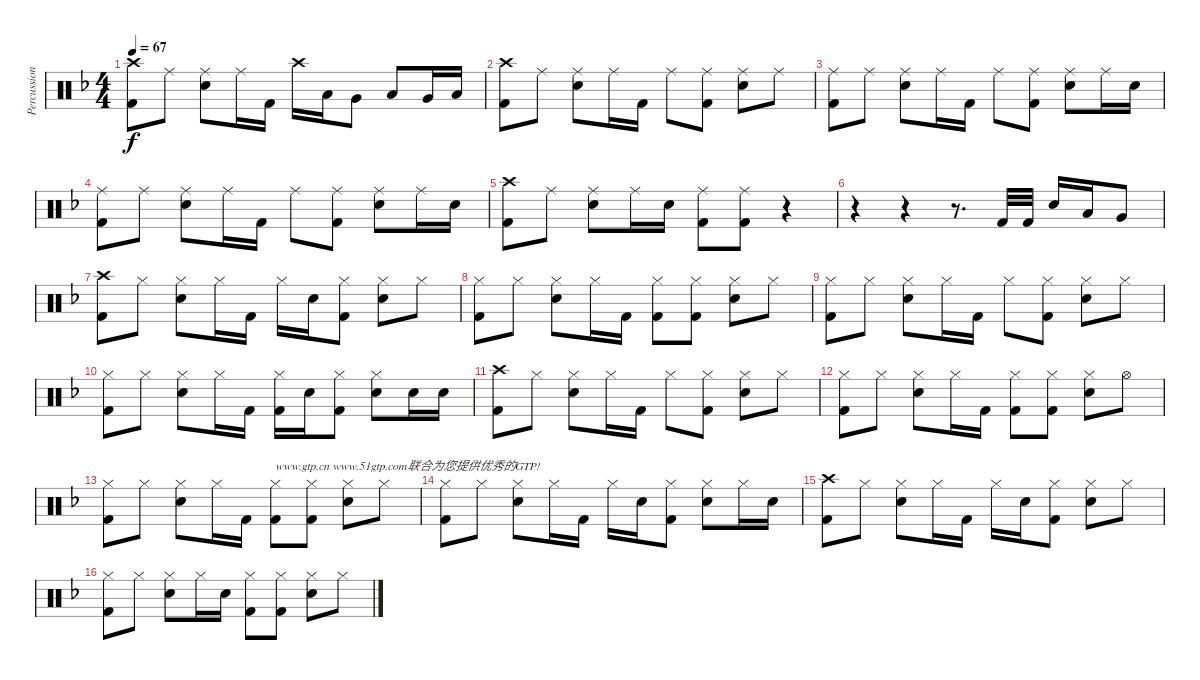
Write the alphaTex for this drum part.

\track ("Percussion" "Percussion") {instrument percussion}
\staff {score}
\articulation defaults
\ts (4 4)
\tempo 67
\clef neutral
\ks f
("Crash high (hit)" "Kick (hit) 2").8{dy f} "Ride (middle)".8 ("Ride (middle)" "Electric Snare (hit)").8 "Ride (middle)".16 "Kick (hit) 2".16 "Crash high (hit)".16 "Low Tom (hit)".16 "Very Low Tom (hit)".8 "Low Tom (hit)".8 "Very Low Tom (hit)".16 "Low Floor Tom (hit)".16 |
("Crash high (hit)" "Kick (hit) 2").8 "Ride (middle)".8 ("Ride (middle)" "Snare (hit) 2").8 "Ride (middle)".16 "Kick (hit) 2".16 "Ride (middle)".8 ("Ride (middle)" "Kick (hit) 2").8 ("Ride (middle)" "Electric Snare (hit)").8 "Ride (middle)".8 |
("Ride (middle)" "Kick (hit) 2").8 "Ride (middle)".8 ("Ride (middle)" "Snare (hit) 2").8 "Ride (middle)".16 "Kick (hit) 2".16 "Ride (middle)".8 ("Ride (middle)" "Kick (hit) 2").8 ("Ride (middle)" "Electric Snare (hit)").8 "Ride (middle)".16 "Electric Snare (hit)".16 |
("Ride (middle)" "Kick (hit) 2").8 "Ride (middle)".8 ("Ride (middle)" "Snare (hit) 2").8 "Ride (middle)".16 "Kick (hit) 2".16 "Ride (middle)".8 ("Ride (middle)" "Kick (hit) 2").8 ("Ride (middle)" "Electric Snare (hit)").8 "Ride (middle)".16 "Electric Snare (hit)".16 |
("Crash high (hit)" "Kick (hit) 2").8 "Ride (middle)".8 ("Ride (middle)" "Electric Snare (hit)").8 "Ride (middle)".16 "Electric Snare (hit)".16 ("Ride (middle)" "Kick (hit) 2").8 ("Ride (middle)" "Kick (hit) 2").8 r.4 |
r.4 r.4 r.8{d} "Kick (hit) 2".32 "Kick (hit) 2".32 "Electric Snare (hit)".16 "Low Tom (hit)".16 "Very Low Tom (hit)".8 |
("Crash high (hit)" "Kick (hit) 2").8 "Hi-Hat (closed)".8 ("Hi-Hat (closed)" "Electric Snare (hit)").8 "Hi-Hat (closed)".16 "Kick (hit) 2".16 "Hi-Hat (closed)".16 "Electric Snare (hit)".16 ("Hi-Hat (closed)" "Kick (hit) 2").8 ("Hi-Hat (closed)" "Electric Snare (hit)").8 "Hi-Hat (closed)".8 |
("Hi-Hat (closed)" "Kick (hit) 2").8 "Hi-Hat (closed)".8 ("Hi-Hat (closed)" "Electric Snare (hit)").8 "Hi-Hat (closed)".16 "Kick (hit) 2".16 ("Hi-Hat (closed)" "Kick (hit) 2").8 ("Hi-Hat (closed)" "Kick (hit) 2").8 ("Hi-Hat (closed)" "Electric Snare (hit)").8 "Hi-Hat (closed)".8 |
("Hi-Hat (closed)" "Kick (hit) 2").8 "Hi-Hat (closed)".8 ("Hi-Hat (closed)" "Electric Snare (hit)").8 "Hi-Hat (closed)".16 "Kick (hit) 2".16 "Hi-Hat (closed)".8 ("Hi-Hat (closed)" "Kick (hit) 2").8 ("Hi-Hat (closed)" "Electric Snare (hit)").8 "Hi-Hat (closed)".8 |
("Hi-Hat (closed)" "Kick (hit) 2").8 "Hi-Hat (closed)".8 ("Hi-Hat (closed)" "Electric Snare (hit)").8 "Hi-Hat (closed)".16 "Kick (hit) 2".16 ("Hi-Hat (closed)" "Kick (hit) 2").16 "Electric Snare (hit)".16 ("Hi-Hat (closed)" "Kick (hit) 2").8 ("Hi-Hat (closed)" "Electric Snare (hit)").8 "Electric Snare (hit)".16 "Electric Snare (hit)".16 |
("Crash high (hit)" "Kick (hit) 2").8 "Hi-Hat (closed)".8 ("Hi-Hat (closed)" "Electric Snare (hit)").8 "Hi-Hat (closed)".16 "Kick (hit) 2".16 "Hi-Hat (closed)".8 ("Hi-Hat (closed)" "Kick (hit) 2").8 ("Hi-Hat (closed)" "Electric Snare (hit)").8 "Hi-Hat (closed)".8 |
("Hi-Hat (closed)" "Kick (hit) 2").8 "Hi-Hat (closed)".8 ("Hi-Hat (closed)" "Electric Snare (hit)").8 "Hi-Hat (closed)".16 "Kick (hit) 2".16 ("Hi-Hat (closed)" "Kick (hit) 2").8 ("Hi-Hat (closed)" "Kick (hit) 2").8 ("Hi-Hat (closed)" "Electric Snare (hit)").8 "Hi-Hat (open)".8 |
("Hi-Hat (closed)" "Kick (hit) 2").8 "Hi-Hat (closed)".8 ("Hi-Hat (closed)" "Electric Snare (hit)").8 "Hi-Hat (closed)".16 "Kick (hit) 2".16 ("Hi-Hat (closed)" "Kick (hit) 2").8{txt "www.gtp.cn www.51gtp.com联合为您提供优秀的GTP!"} ("Hi-Hat (closed)" "Kick (hit) 2").8 ("Hi-Hat (closed)" "Electric Snare (hit)").8 "Hi-Hat (closed)".8 |
("Hi-Hat (closed)" "Kick (hit) 2").8 "Hi-Hat (closed)".8 ("Hi-Hat (closed)" "Electric Snare (hit)").8 "Hi-Hat (closed)".16 "Kick (hit) 2".16 "Hi-Hat (closed)".16 "Electric Snare (hit)".16 ("Hi-Hat (closed)" "Kick (hit) 2").8 ("Hi-Hat (closed)" "Electric Snare (hit)").8 "Hi-Hat (closed)".16 "Electric Snare (hit)".16 |
("Crash high (hit)" "Kick (hit) 2").8 "Hi-Hat (closed)".8 ("Hi-Hat (closed)" "Electric Snare (hit)").8 "Hi-Hat (closed)".16 "Kick (hit) 2".16 "Hi-Hat (closed)".16 "Electric Snare (hit)".16 ("Hi-Hat (closed)" "Kick (hit) 2").8 ("Hi-Hat (closed)" "Electric Snare (hit)").8 "Hi-Hat (closed)".8 |
("Hi-Hat (closed)" "Kick (hit) 2").8 "Hi-Hat (closed)".8 ("Hi-Hat (closed)" "Electric Snare (hit)").8 "Hi-Hat (closed)".16 "Electric Snare (hit)".16 ("Hi-Hat (closed)" "Kick (hit) 2").8 ("Hi-Hat (closed)" "Kick (hit) 2").8 ("Hi-Hat (closed)" "Electric Snare (hit)").8 "Hi-Hat (closed)".8
